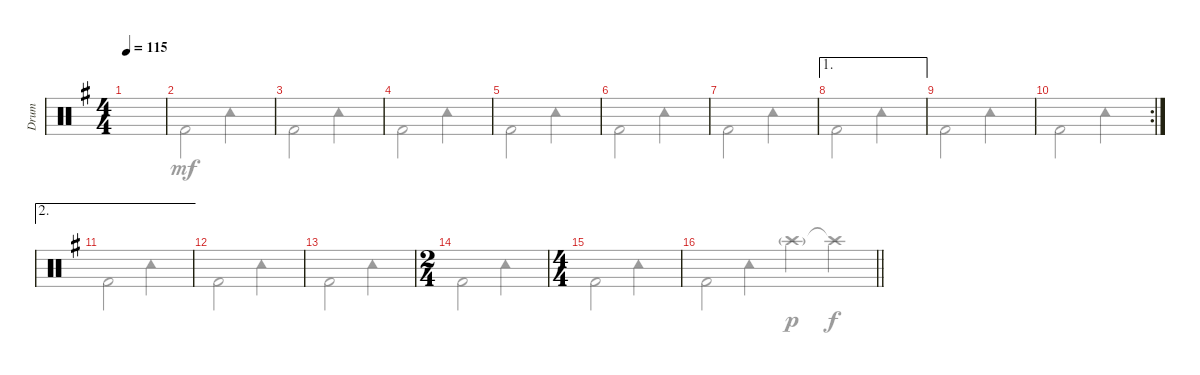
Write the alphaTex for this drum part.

\track ("Drum" "Drum") {instrument percussion}
\staff {score}
\articulation defaults
\voice
\ts (4 4)
\tempo 115
\clef neutral
\ks eminor
|
|
|
|
|
|
|
\ae 1
|
|
\rc 2
|
\ae 2
|
|
|
\ts (2 4)
|
\ts (4 4)
|
\barLineRight lightlight
\voice
\clef neutral
\ks eminor "Kick (hit) 2".2{dy mf} "Tambourine (hit)".2
|
"Kick (hit) 2".2 "Tambourine (hit)".2 |
"Kick (hit) 2".2 "Tambourine (hit)".2 |
"Kick (hit) 2".2 "Tambourine (hit)".2 |
"Kick (hit) 2".2 "Tambourine (hit)".2 |
"Kick (hit) 2".2 "Tambourine (hit)".2 |
"Kick (hit) 2".2 "Tambourine (hit)".2 |
"Kick (hit) 2".2 "Tambourine (hit)".2 |
"Kick (hit) 2".2 "Tambourine (hit)".2 |
"Kick (hit) 2".2 "Tambourine (hit)".2 |
"Kick (hit) 2".2 "Tambourine (hit)".2 |
"Kick (hit) 2".2 "Tambourine (hit)".2 |
"Kick (hit) 2".2 "Tambourine (hit)".2 |
"Kick (hit) 2".2 "Tambourine (hit)".2 |
"Kick (hit) 2".2 "Tambourine (hit)".2 |
\barLineRight lightlight "Crash high (hit)"{g}.2{dy p} "Crash high (hit)"{t}.2{dy f}
